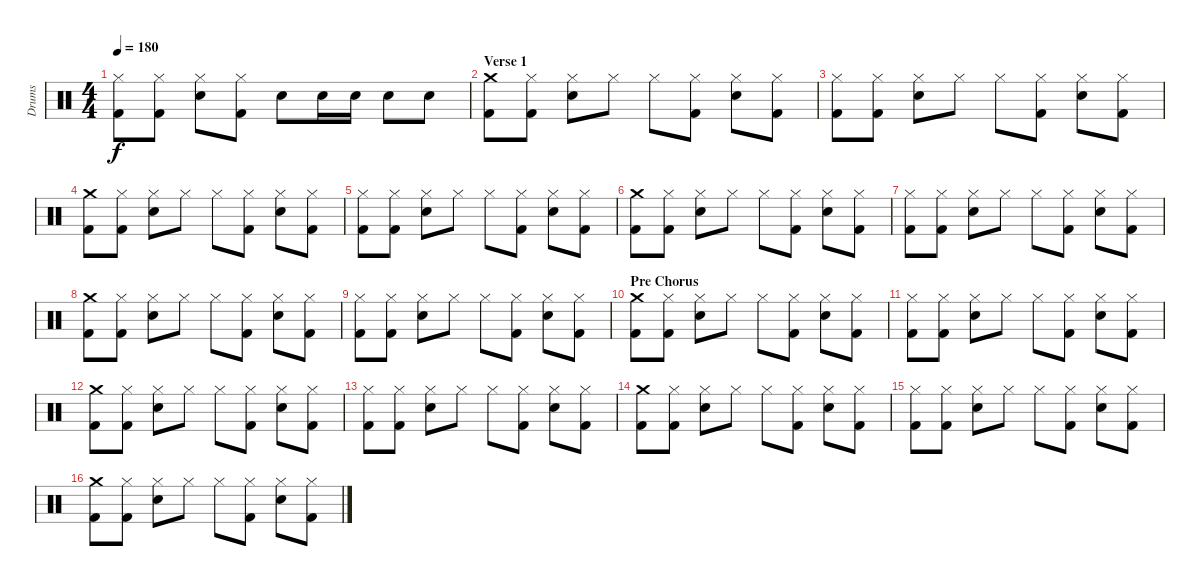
\track ("Drums" "Drums") {instrument percussion}
\staff {score}
\articulation defaults
\ts (4 4)
\tempo 180
\clef neutral
\ks c
("Hi-Hat (closed)" "Kick (hit) 2").8{dy f} ("Hi-Hat (closed)" "Kick (hit) 2").8 ("Hi-Hat (closed)" "Electric Snare (hit)").8 ("Hi-Hat (closed)" "Kick (hit) 2").8 "Electric Snare (hit)".8 "Electric Snare (hit)".16 "Electric Snare (hit)".16 "Electric Snare (hit)".8 "Electric Snare (hit)".8 |
\section ("" "Verse 1")
("Crash medium (hit)" "Kick (hit) 2").8 ("Hi-Hat (closed)" "Kick (hit) 2").8 ("Hi-Hat (closed)" "Electric Snare (hit)").8 "Hi-Hat (closed)".8 "Hi-Hat (closed)".8 ("Hi-Hat (closed)" "Kick (hit) 2").8 ("Hi-Hat (closed)" "Electric Snare (hit)").8 ("Hi-Hat (closed)" "Kick (hit) 2").8 |
("Hi-Hat (closed)" "Kick (hit) 2").8 ("Hi-Hat (closed)" "Kick (hit) 2").8 ("Hi-Hat (closed)" "Electric Snare (hit)").8 "Hi-Hat (closed)".8 "Hi-Hat (closed)".8 ("Hi-Hat (closed)" "Kick (hit) 2").8 ("Hi-Hat (closed)" "Electric Snare (hit)").8 ("Hi-Hat (closed)" "Kick (hit) 2").8 |
("Crash medium (hit)" "Kick (hit) 2").8 ("Hi-Hat (closed)" "Kick (hit) 2").8 ("Hi-Hat (closed)" "Electric Snare (hit)").8 "Hi-Hat (closed)".8 "Hi-Hat (closed)".8 ("Hi-Hat (closed)" "Kick (hit) 2").8 ("Hi-Hat (closed)" "Electric Snare (hit)").8 ("Hi-Hat (closed)" "Kick (hit) 2").8 |
("Hi-Hat (closed)" "Kick (hit) 2").8 ("Hi-Hat (closed)" "Kick (hit) 2").8 ("Hi-Hat (closed)" "Electric Snare (hit)").8 "Hi-Hat (closed)".8 "Hi-Hat (closed)".8 ("Hi-Hat (closed)" "Kick (hit) 2").8 ("Hi-Hat (closed)" "Electric Snare (hit)").8 ("Hi-Hat (closed)" "Kick (hit) 2").8 |
("Crash medium (hit)" "Kick (hit) 2").8 ("Hi-Hat (closed)" "Kick (hit) 2").8 ("Hi-Hat (closed)" "Electric Snare (hit)").8 "Hi-Hat (closed)".8 "Hi-Hat (closed)".8 ("Hi-Hat (closed)" "Kick (hit) 2").8 ("Hi-Hat (closed)" "Electric Snare (hit)").8 ("Hi-Hat (closed)" "Kick (hit) 2").8 |
("Hi-Hat (closed)" "Kick (hit) 2").8 ("Hi-Hat (closed)" "Kick (hit) 2").8 ("Hi-Hat (closed)" "Electric Snare (hit)").8 "Hi-Hat (closed)".8 "Hi-Hat (closed)".8 ("Hi-Hat (closed)" "Kick (hit) 2").8 ("Hi-Hat (closed)" "Electric Snare (hit)").8 ("Hi-Hat (closed)" "Kick (hit) 2").8 |
("Crash medium (hit)" "Kick (hit) 2").8 ("Hi-Hat (closed)" "Kick (hit) 2").8 ("Hi-Hat (closed)" "Electric Snare (hit)").8 "Hi-Hat (closed)".8 "Hi-Hat (closed)".8 ("Hi-Hat (closed)" "Kick (hit) 2").8 ("Hi-Hat (closed)" "Electric Snare (hit)").8 ("Hi-Hat (closed)" "Kick (hit) 2").8 |
("Hi-Hat (closed)" "Kick (hit) 2").8 ("Hi-Hat (closed)" "Kick (hit) 2").8 ("Hi-Hat (closed)" "Electric Snare (hit)").8 "Hi-Hat (closed)".8 "Hi-Hat (closed)".8 ("Hi-Hat (closed)" "Kick (hit) 2").8 ("Hi-Hat (closed)" "Electric Snare (hit)").8 ("Hi-Hat (closed)" "Kick (hit) 2").8 |
\section ("" "Pre Chorus")
("Crash medium (hit)" "Kick (hit) 2").8 ("Hi-Hat (closed)" "Kick (hit) 2").8 ("Hi-Hat (closed)" "Electric Snare (hit)").8 "Hi-Hat (closed)".8 "Hi-Hat (closed)".8 ("Hi-Hat (closed)" "Kick (hit) 2").8 ("Hi-Hat (closed)" "Electric Snare (hit)").8 ("Hi-Hat (closed)" "Kick (hit) 2").8 |
("Hi-Hat (closed)" "Kick (hit) 2").8 ("Hi-Hat (closed)" "Kick (hit) 2").8 ("Hi-Hat (closed)" "Electric Snare (hit)").8 "Hi-Hat (closed)".8 "Hi-Hat (closed)".8 ("Hi-Hat (closed)" "Kick (hit) 2").8 ("Hi-Hat (closed)" "Electric Snare (hit)").8 ("Hi-Hat (closed)" "Kick (hit) 2").8 |
("Crash medium (hit)" "Kick (hit) 2").8 ("Hi-Hat (closed)" "Kick (hit) 2").8 ("Hi-Hat (closed)" "Electric Snare (hit)").8 "Hi-Hat (closed)".8 "Hi-Hat (closed)".8 ("Hi-Hat (closed)" "Kick (hit) 2").8 ("Hi-Hat (closed)" "Electric Snare (hit)").8 ("Hi-Hat (closed)" "Kick (hit) 2").8 |
("Hi-Hat (closed)" "Kick (hit) 2").8 ("Hi-Hat (closed)" "Kick (hit) 2").8 ("Hi-Hat (closed)" "Electric Snare (hit)").8 "Hi-Hat (closed)".8 "Hi-Hat (closed)".8 ("Hi-Hat (closed)" "Kick (hit) 2").8 ("Hi-Hat (closed)" "Electric Snare (hit)").8 ("Hi-Hat (closed)" "Kick (hit) 2").8 |
("Crash medium (hit)" "Kick (hit) 2").8 ("Hi-Hat (closed)" "Kick (hit) 2").8 ("Hi-Hat (closed)" "Electric Snare (hit)").8 "Hi-Hat (closed)".8 "Hi-Hat (closed)".8 ("Hi-Hat (closed)" "Kick (hit) 2").8 ("Hi-Hat (closed)" "Electric Snare (hit)").8 ("Hi-Hat (closed)" "Kick (hit) 2").8 |
("Hi-Hat (closed)" "Kick (hit) 2").8 ("Hi-Hat (closed)" "Kick (hit) 2").8 ("Hi-Hat (closed)" "Electric Snare (hit)").8 "Hi-Hat (closed)".8 "Hi-Hat (closed)".8 ("Hi-Hat (closed)" "Kick (hit) 2").8 ("Hi-Hat (closed)" "Electric Snare (hit)").8 ("Hi-Hat (closed)" "Kick (hit) 2").8 |
("Crash medium (hit)" "Kick (hit) 2").8 ("Hi-Hat (closed)" "Kick (hit) 2").8 ("Hi-Hat (closed)" "Electric Snare (hit)").8 "Hi-Hat (closed)".8 "Hi-Hat (closed)".8 ("Hi-Hat (closed)" "Kick (hit) 2").8 ("Hi-Hat (closed)" "Electric Snare (hit)").8 ("Hi-Hat (closed)" "Kick (hit) 2").8
